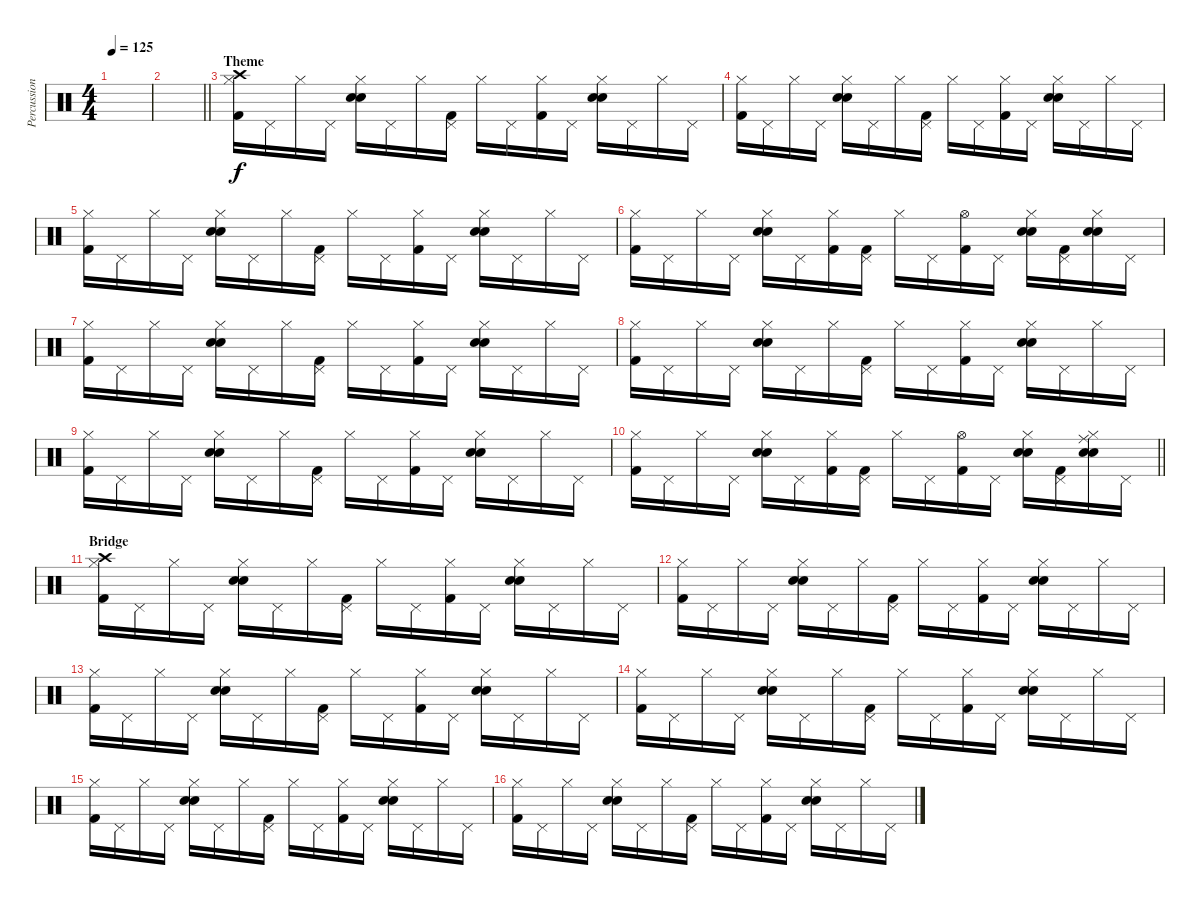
\track ("Percussion" "Percussion") {instrument percussion}
\staff {score}
\articulation defaults
\ts (4 4)
\tempo 125
\clef neutral
\ks c
|
\barLineRight lightlight
|
\section ("" "Theme")
("Crash high (hit)" "Hi-Hat (closed)" "Kick (hit) 2").16 "Pedal Hi-Hat (hit)".16 "Hi-Hat (closed)".16 "Pedal Hi-Hat (hit)".16 ("Electric Snare (hit)" "Electric Snare (hit)" "Hi-Hat (closed)").16 "Pedal Hi-Hat (hit)".16 "Hi-Hat (closed)".16 ("Pedal Hi-Hat (hit)" "Kick (hit) 2").16 "Hi-Hat (closed)".16 "Pedal Hi-Hat (hit)".16 ("Hi-Hat (closed)" "Kick (hit) 2").16 "Pedal Hi-Hat (hit)".16 ("Electric Snare (hit)" "Electric Snare (hit)" "Hi-Hat (closed)").16 "Pedal Hi-Hat (hit)".16 "Hi-Hat (closed)".16 "Pedal Hi-Hat (hit)".16 |
("Hi-Hat (closed)" "Kick (hit) 2").16 "Pedal Hi-Hat (hit)".16 "Hi-Hat (closed)".16 "Pedal Hi-Hat (hit)".16 ("Electric Snare (hit)" "Electric Snare (hit)" "Hi-Hat (closed)").16 "Pedal Hi-Hat (hit)".16 "Hi-Hat (closed)".16 ("Pedal Hi-Hat (hit)" "Kick (hit) 2").16 "Hi-Hat (closed)".16 "Pedal Hi-Hat (hit)".16 ("Hi-Hat (closed)" "Kick (hit) 2").16 "Pedal Hi-Hat (hit)".16 ("Electric Snare (hit)" "Electric Snare (hit)" "Hi-Hat (closed)").16 "Pedal Hi-Hat (hit)".16 "Hi-Hat (closed)".16 "Pedal Hi-Hat (hit)".16 |
("Hi-Hat (closed)" "Kick (hit) 2").16 "Pedal Hi-Hat (hit)".16 "Hi-Hat (closed)".16 "Pedal Hi-Hat (hit)".16 ("Electric Snare (hit)" "Electric Snare (hit)" "Hi-Hat (closed)").16 "Pedal Hi-Hat (hit)".16 "Hi-Hat (closed)".16 ("Pedal Hi-Hat (hit)" "Kick (hit) 2").16 "Hi-Hat (closed)".16 "Pedal Hi-Hat (hit)".16 ("Hi-Hat (closed)" "Kick (hit) 2").16 "Pedal Hi-Hat (hit)".16 ("Electric Snare (hit)" "Electric Snare (hit)" "Hi-Hat (closed)").16 "Pedal Hi-Hat (hit)".16 "Hi-Hat (closed)".16 "Pedal Hi-Hat (hit)".16 |
("Hi-Hat (closed)" "Kick (hit) 2").16 "Pedal Hi-Hat (hit)".16 "Hi-Hat (closed)".16 "Pedal Hi-Hat (hit)".16 ("Electric Snare (hit)" "Electric Snare (hit)" "Hi-Hat (closed)").16 "Pedal Hi-Hat (hit)".16 ("Hi-Hat (closed)" "Kick (hit) 2").16 ("Pedal Hi-Hat (hit)" "Kick (hit) 2").16 "Hi-Hat (closed)".16 "Pedal Hi-Hat (hit)".16 ("Hi-Hat (open)" "Kick (hit) 2").16 "Pedal Hi-Hat (hit)".16 ("Electric Snare (hit)" "Electric Snare (hit)" "Hi-Hat (closed)").16 ("Pedal Hi-Hat (hit)" "Kick (hit) 2").16 ("Electric Snare (hit)" "Electric Snare (hit)" "Hi-Hat (closed)").16 "Pedal Hi-Hat (hit)".16 |
("Hi-Hat (closed)" "Kick (hit) 2").16 "Pedal Hi-Hat (hit)".16 "Hi-Hat (closed)".16 "Pedal Hi-Hat (hit)".16 ("Electric Snare (hit)" "Electric Snare (hit)" "Hi-Hat (closed)").16 "Pedal Hi-Hat (hit)".16 "Hi-Hat (closed)".16 ("Pedal Hi-Hat (hit)" "Kick (hit) 2").16 "Hi-Hat (closed)".16 "Pedal Hi-Hat (hit)".16 ("Hi-Hat (closed)" "Kick (hit) 2").16 "Pedal Hi-Hat (hit)".16 ("Electric Snare (hit)" "Electric Snare (hit)" "Hi-Hat (closed)").16 "Pedal Hi-Hat (hit)".16 "Hi-Hat (closed)".16 "Pedal Hi-Hat (hit)".16 |
("Hi-Hat (closed)" "Kick (hit) 2").16 "Pedal Hi-Hat (hit)".16 "Hi-Hat (closed)".16 "Pedal Hi-Hat (hit)".16 ("Electric Snare (hit)" "Electric Snare (hit)" "Hi-Hat (closed)").16 "Pedal Hi-Hat (hit)".16 "Hi-Hat (closed)".16 ("Pedal Hi-Hat (hit)" "Kick (hit) 2").16 "Hi-Hat (closed)".16 "Pedal Hi-Hat (hit)".16 ("Hi-Hat (closed)" "Kick (hit) 2").16 "Pedal Hi-Hat (hit)".16 ("Electric Snare (hit)" "Electric Snare (hit)" "Hi-Hat (closed)").16 "Pedal Hi-Hat (hit)".16 "Hi-Hat (closed)".16 "Pedal Hi-Hat (hit)".16 |
("Hi-Hat (closed)" "Kick (hit) 2").16 "Pedal Hi-Hat (hit)".16 "Hi-Hat (closed)".16 "Pedal Hi-Hat (hit)".16 ("Electric Snare (hit)" "Electric Snare (hit)" "Hi-Hat (closed)").16 "Pedal Hi-Hat (hit)".16 "Hi-Hat (closed)".16 ("Pedal Hi-Hat (hit)" "Kick (hit) 2").16 "Hi-Hat (closed)".16 "Pedal Hi-Hat (hit)".16 ("Hi-Hat (closed)" "Kick (hit) 2").16 "Pedal Hi-Hat (hit)".16 ("Electric Snare (hit)" "Electric Snare (hit)" "Hi-Hat (closed)").16 "Pedal Hi-Hat (hit)".16 "Hi-Hat (closed)".16 "Pedal Hi-Hat (hit)".16 |
\barLineRight lightlight
("Hi-Hat (closed)" "Kick (hit) 2").16 "Pedal Hi-Hat (hit)".16 "Hi-Hat (closed)".16 "Pedal Hi-Hat (hit)".16 ("Electric Snare (hit)" "Electric Snare (hit)" "Hi-Hat (closed)").16 "Pedal Hi-Hat (hit)".16 ("Hi-Hat (closed)" "Kick (hit) 2").16 ("Pedal Hi-Hat (hit)" "Kick (hit) 2").16 "Hi-Hat (closed)".16 "Pedal Hi-Hat (hit)".16 ("Hi-Hat (open)" "Kick (hit) 2").16 "Pedal Hi-Hat (hit)".16 ("Electric Snare (hit)" "Electric Snare (hit)" "Hi-Hat (closed)").16 ("Pedal Hi-Hat (hit)" "Kick (hit) 2").16 ("Ride (middle)" "Electric Snare (hit)" "Electric Snare (hit)" "Hi-Hat (closed)").16 "Pedal Hi-Hat (hit)".16 |
\section ("" "Bridge")
("Crash high (hit)" "Hi-Hat (closed)" "Kick (hit) 2").16 "Pedal Hi-Hat (hit)".16 "Hi-Hat (closed)".16 "Pedal Hi-Hat (hit)".16 ("Electric Snare (hit)" "Electric Snare (hit)" "Hi-Hat (closed)").16 "Pedal Hi-Hat (hit)".16 "Hi-Hat (closed)".16 ("Pedal Hi-Hat (hit)" "Kick (hit) 2").16 "Hi-Hat (closed)".16 "Pedal Hi-Hat (hit)".16 ("Hi-Hat (closed)" "Kick (hit) 2").16 "Pedal Hi-Hat (hit)".16 ("Electric Snare (hit)" "Electric Snare (hit)" "Hi-Hat (closed)").16 "Pedal Hi-Hat (hit)".16 "Hi-Hat (closed)".16 "Pedal Hi-Hat (hit)".16 |
("Hi-Hat (closed)" "Kick (hit) 2").16 "Pedal Hi-Hat (hit)".16 "Hi-Hat (closed)".16 "Pedal Hi-Hat (hit)".16 ("Electric Snare (hit)" "Electric Snare (hit)" "Hi-Hat (closed)").16 "Pedal Hi-Hat (hit)".16 "Hi-Hat (closed)".16 ("Pedal Hi-Hat (hit)" "Kick (hit) 2").16 "Hi-Hat (closed)".16 "Pedal Hi-Hat (hit)".16 ("Hi-Hat (closed)" "Kick (hit) 2").16 "Pedal Hi-Hat (hit)".16 ("Electric Snare (hit)" "Electric Snare (hit)" "Hi-Hat (closed)").16 "Pedal Hi-Hat (hit)".16 "Hi-Hat (closed)".16 "Pedal Hi-Hat (hit)".16 |
("Hi-Hat (closed)" "Kick (hit) 2").16 "Pedal Hi-Hat (hit)".16 "Hi-Hat (closed)".16 "Pedal Hi-Hat (hit)".16 ("Electric Snare (hit)" "Electric Snare (hit)" "Hi-Hat (closed)").16 "Pedal Hi-Hat (hit)".16 "Hi-Hat (closed)".16 ("Pedal Hi-Hat (hit)" "Kick (hit) 2").16 "Hi-Hat (closed)".16 "Pedal Hi-Hat (hit)".16 ("Hi-Hat (closed)" "Kick (hit) 2").16 "Pedal Hi-Hat (hit)".16 ("Electric Snare (hit)" "Electric Snare (hit)" "Hi-Hat (closed)").16 "Pedal Hi-Hat (hit)".16 "Hi-Hat (closed)".16 "Pedal Hi-Hat (hit)".16 |
("Hi-Hat (closed)" "Kick (hit) 2").16 "Pedal Hi-Hat (hit)".16 "Hi-Hat (closed)".16 "Pedal Hi-Hat (hit)".16 ("Electric Snare (hit)" "Electric Snare (hit)" "Hi-Hat (closed)").16 "Pedal Hi-Hat (hit)".16 "Hi-Hat (closed)".16 ("Pedal Hi-Hat (hit)" "Kick (hit) 2").16 "Hi-Hat (closed)".16 "Pedal Hi-Hat (hit)".16 ("Hi-Hat (closed)" "Kick (hit) 2").16 "Pedal Hi-Hat (hit)".16 ("Electric Snare (hit)" "Electric Snare (hit)" "Hi-Hat (closed)").16 "Pedal Hi-Hat (hit)".16 "Hi-Hat (closed)".16 "Pedal Hi-Hat (hit)".16 |
("Hi-Hat (closed)" "Kick (hit) 2").16 "Pedal Hi-Hat (hit)".16 "Hi-Hat (closed)".16 "Pedal Hi-Hat (hit)".16 ("Electric Snare (hit)" "Electric Snare (hit)" "Hi-Hat (closed)").16 "Pedal Hi-Hat (hit)".16 "Hi-Hat (closed)".16 ("Pedal Hi-Hat (hit)" "Kick (hit) 2").16 "Hi-Hat (closed)".16 "Pedal Hi-Hat (hit)".16 ("Hi-Hat (closed)" "Kick (hit) 2").16 "Pedal Hi-Hat (hit)".16 ("Electric Snare (hit)" "Electric Snare (hit)" "Hi-Hat (closed)").16 "Pedal Hi-Hat (hit)".16 "Hi-Hat (closed)".16 "Pedal Hi-Hat (hit)".16 |
("Hi-Hat (closed)" "Kick (hit) 2").16 "Pedal Hi-Hat (hit)".16 "Hi-Hat (closed)".16 "Pedal Hi-Hat (hit)".16 ("Electric Snare (hit)" "Electric Snare (hit)" "Hi-Hat (closed)").16 "Pedal Hi-Hat (hit)".16 "Hi-Hat (closed)".16 ("Pedal Hi-Hat (hit)" "Kick (hit) 2").16 "Hi-Hat (closed)".16 "Pedal Hi-Hat (hit)".16 ("Hi-Hat (closed)" "Kick (hit) 2").16 "Pedal Hi-Hat (hit)".16 ("Electric Snare (hit)" "Electric Snare (hit)" "Hi-Hat (closed)").16 "Pedal Hi-Hat (hit)".16 "Hi-Hat (closed)".16 "Pedal Hi-Hat (hit)".16
